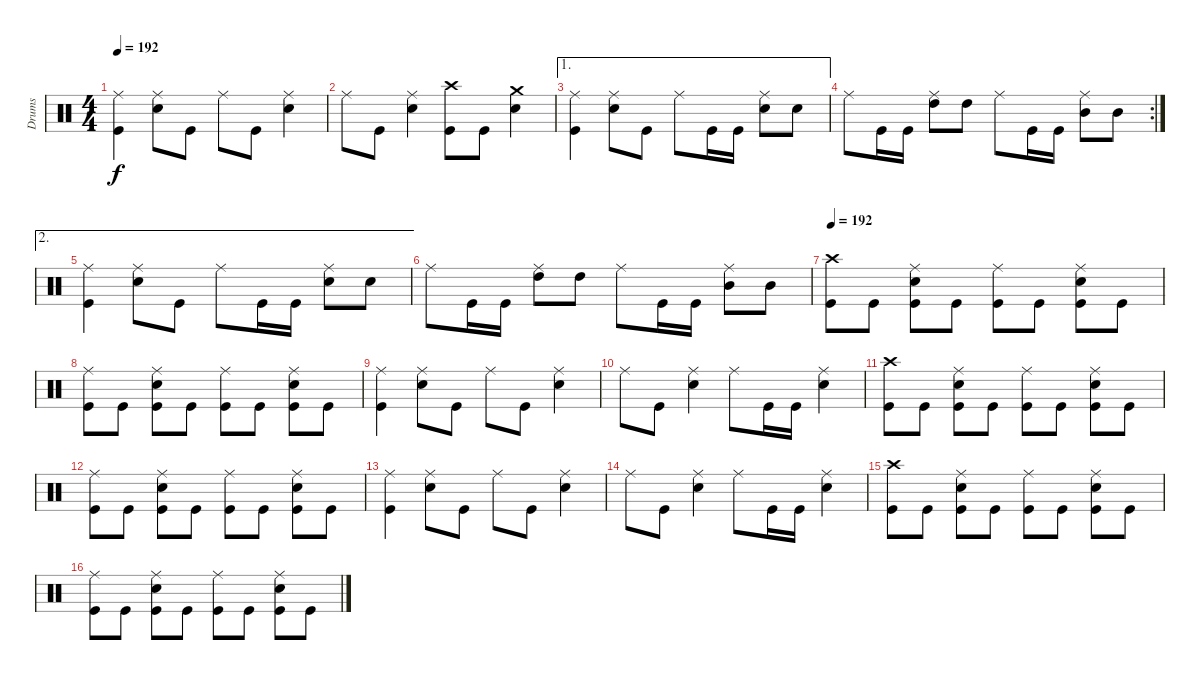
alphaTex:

\track ("Drums" "Drums") {instrument percussion}
\staff {score}
\articulation defaults
\ts (4 4)
\tempo 192
\clef neutral
\ks c
("Ride (middle)" "Kick (hit)").4{dy f} ("Ride (middle)" "Electric Snare (hit)").8 "Kick (hit)".8 "Ride (middle)".8 "Kick (hit)".8 ("Ride (middle)" "Electric Snare (hit)").4 |
"Ride (middle)".8 "Kick (hit)".8 ("Ride (middle)" "Electric Snare (hit)").4 ("Crash high (hit)" "Kick (hit)").8 "Kick (hit)".8 ("Crash medium (hit)" "Electric Snare (hit)").4 |
\ae 1
("Ride (middle)" "Kick (hit)").4 ("Ride (middle)" "Electric Snare (hit)").8 "Kick (hit)".8 "Ride (middle)".8 "Kick (hit)".16 "Kick (hit)".16 ("Ride (middle)" "Electric Snare (hit)").8 "Electric Snare (hit)".8 |
\rc 2 "Ride (middle)".8 "Kick (hit)".16 "Kick (hit)".16
("Ride (middle)" "High Tom (hit)").8 "High Tom (hit)".8 "Ride (middle)".8 "Kick (hit)".16 "Kick (hit)".16 ("Ride (middle)" "Mid Tom (hit)").8 "Mid Tom (hit)".8 |
\ae 2
("Ride (middle)" "Kick (hit)").4 ("Ride (middle)" "Electric Snare (hit)").8 "Kick (hit)".8 "Ride (middle)".8 "Kick (hit)".16 "Kick (hit)".16 ("Ride (middle)" "Electric Snare (hit)").8 "Electric Snare (hit)".8 |
"Ride (middle)".8 "Kick (hit)".16 "Kick (hit)".16 ("Ride (middle)" "High Tom (hit)").8 "High Tom (hit)".8 "Ride (middle)".8 "Kick (hit)".16 "Kick (hit)".16 ("Ride (middle)" "Mid Tom (hit)").8 "Mid Tom (hit)".8 |
\tempo 192
("Crash high (hit)" "Kick (hit)").8 "Kick (hit)".8 ("Ride (middle)" "Electric Snare (hit)" "Kick (hit)").8 "Kick (hit)".8 ("Ride (middle)" "Kick (hit)").8 "Kick (hit)".8 ("Ride (middle)" "Electric Snare (hit)" "Kick (hit)").8 "Kick (hit)".8 |
("Ride (middle)" "Kick (hit)").8 "Kick (hit)".8 ("Ride (middle)" "Electric Snare (hit)" "Kick (hit)").8 "Kick (hit)".8 ("Ride (middle)" "Kick (hit)").8 "Kick (hit)".8 ("Ride (middle)" "Electric Snare (hit)" "Kick (hit)").8 "Kick (hit)".8 |
("Ride (middle)" "Kick (hit)").4 ("Ride (middle)" "Electric Snare (hit)").8 "Kick (hit)".8 "Ride (middle)".8 "Kick (hit)".8 ("Ride (middle)" "Electric Snare (hit)").4 |
"Ride (middle)".8 "Kick (hit)".8 ("Ride (middle)" "Electric Snare (hit)").4 "Ride (middle)".8 "Kick (hit)".16 "Kick (hit)".16 ("Ride (middle)" "Electric Snare (hit)").4 |
("Crash high (hit)" "Kick (hit)").8 "Kick (hit)".8 ("Ride (middle)" "Electric Snare (hit)" "Kick (hit)").8 "Kick (hit)".8 ("Ride (middle)" "Kick (hit)").8 "Kick (hit)".8 ("Ride (middle)" "Electric Snare (hit)" "Kick (hit)").8 "Kick (hit)".8 |
("Ride (middle)" "Kick (hit)").8 "Kick (hit)".8 ("Ride (middle)" "Electric Snare (hit)" "Kick (hit)").8 "Kick (hit)".8 ("Ride (middle)" "Kick (hit)").8 "Kick (hit)".8 ("Ride (middle)" "Electric Snare (hit)" "Kick (hit)").8 "Kick (hit)".8 |
("Ride (middle)" "Kick (hit)").4 ("Ride (middle)" "Electric Snare (hit)").8 "Kick (hit)".8 "Ride (middle)".8 "Kick (hit)".8 ("Ride (middle)" "Electric Snare (hit)").4 |
"Ride (middle)".8 "Kick (hit)".8 ("Ride (middle)" "Electric Snare (hit)").4 "Ride (middle)".8 "Kick (hit)".16 "Kick (hit)".16 ("Ride (middle)" "Electric Snare (hit)").4 |
("Crash high (hit)" "Kick (hit)").8 "Kick (hit)".8 ("Ride (middle)" "Electric Snare (hit)" "Kick (hit)").8 "Kick (hit)".8 ("Ride (middle)" "Kick (hit)").8 "Kick (hit)".8 ("Ride (middle)" "Electric Snare (hit)" "Kick (hit)").8 "Kick (hit)".8 |
("Ride (middle)" "Kick (hit)").8 "Kick (hit)".8 ("Ride (middle)" "Electric Snare (hit)" "Kick (hit)").8 "Kick (hit)".8 ("Ride (middle)" "Kick (hit)").8 "Kick (hit)".8 ("Ride (middle)" "Electric Snare (hit)" "Kick (hit)").8 "Kick (hit)".8
